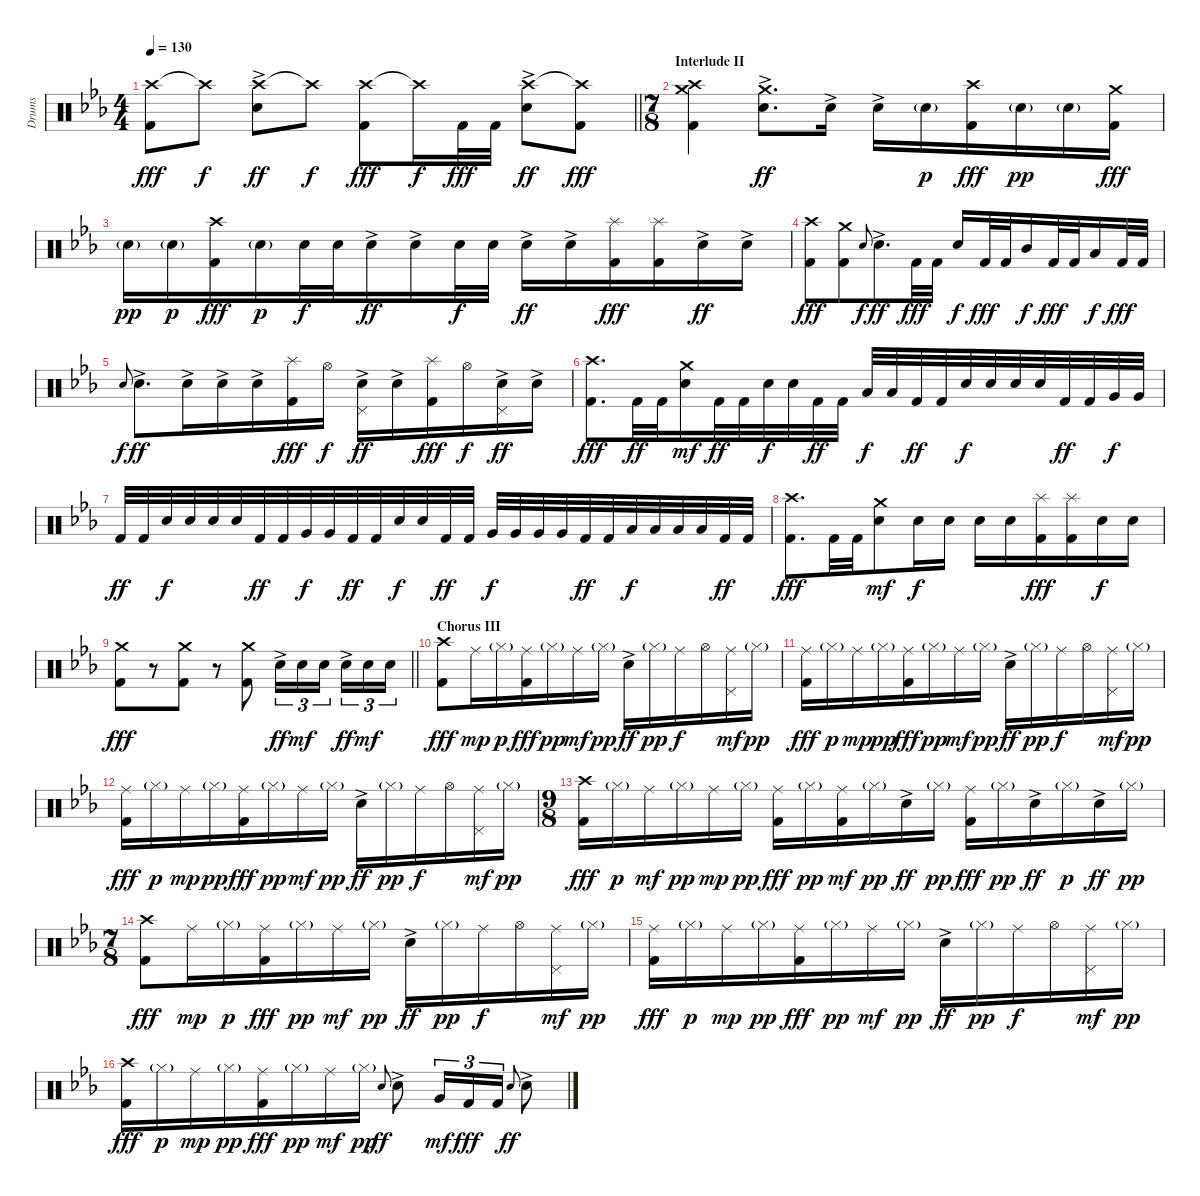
\track ("Drums" "Drums") {instrument percussion}
\staff {score}
\articulation defaults
\ts (4 4)
\tempo 130
\clef neutral
\barLineRight lightlight
\ks cminor
("Crash high (hit)" "Kick (hit) 2").8{dy fff} "Crash high (hit)"{t}.8{dy f} ("Crash high (hit)" "Electric Snare (hit)"{ac}).8{dy ff} "Crash high (hit)"{t}.8{dy f} ("Crash high (hit)" "Kick (hit) 2").8{dy fff} "Crash high (hit)"{t}.16{dy f} "Kick (hit) 2".32{dy fff} "Kick (hit) 2".32 ("Crash high (hit)" "Electric Snare (hit)"{ac}).8{dy ff} ("Crash high (hit)"{t} "Kick (hit) 2").8{dy fff} |
\ts (7 8)
\section ("" "Interlude II")
("Crash high (hit)" "Crash medium (hit)" "Kick (hit) 2").4 ("Crash medium (hit)" "Electric Snare (hit)"{ac}).8{d dy ff} "Electric Snare (hit)"{ac}.16 "Electric Snare (hit)"{ac}.16 "Electric Snare (hit)"{g}.16{dy p} ("Crash high (hit)" "Kick (hit) 2").16{dy fff} "Electric Snare (hit)"{g}.16{dy pp} "Electric Snare (hit)"{g}.16 ("Crash medium (hit)" "Kick (hit) 2").16{dy fff} |
"Electric Snare (hit)"{g}.16{dy pp} "Electric Snare (hit)"{g}.16{dy p} ("Crash high (hit)" "Kick (hit) 2").16{dy fff} "Electric Snare (hit)"{g}.16{dy p} "Electric Snare (hit)".32{dy f} "Electric Snare (hit)".32 "Electric Snare (hit)"{ac}.16{dy ff} "Electric Snare (hit)"{ac}.16 "Electric Snare (hit)".32{dy f} "Electric Snare (hit)".32 "Electric Snare (hit)"{ac}.16{dy ff} "Electric Snare (hit)"{ac}.16 ("Splash (hit)" "Kick (hit) 2").16{dy fff} ("Splash (hit)" "Kick (hit) 2").16 "Electric Snare (hit)"{ac}.16{dy ff} "Electric Snare (hit)"{ac}.16 |
("Crash high (hit)" "Kick (hit) 2").8{dy fff} ("Crash medium (hit)" "Kick (hit) 2").8 "Electric Snare (hit)".8{gr onbeat dy f} "Electric Snare (hit)"{ac}.8{d dy ff} "Kick (hit) 2".32{dy fff} "Kick (hit) 2".32 "Electric Snare (hit)".16{dy f} "Kick (hit) 2".32{dy fff} "Kick (hit) 2".32 "Mid Tom (hit)".16{dy f} "Kick (hit) 2".32{dy fff} "Kick (hit) 2".32 "Low Tom (hit)".16{dy f} "Kick (hit) 2".32{dy fff} "Kick (hit) 2".32 |
"Electric Snare (hit)".8{gr onbeat dy f} "Electric Snare (hit)"{ac}.8{d dy ff} "Electric Snare (hit)"{ac}.16 "Electric Snare (hit)"{ac}.16 "Electric Snare (hit)"{ac}.16 ("Splash (hit)" "Kick (hit) 2").16{dy fff} "Hi-Hat (open)".16{dy f} ("Pedal Hi-Hat (hit)" "Electric Snare (hit)"{ac}).16{dy ff} "Electric Snare (hit)"{ac}.16 ("Splash (hit)" "Kick (hit) 2").16{dy fff} "Hi-Hat (open)".16{dy f} ("Pedal Hi-Hat (hit)" "Electric Snare (hit)"{ac}).16{dy ff} "Electric Snare (hit)"{ac}.16 |
("Crash high (hit)" "Kick (hit) 2").8{d dy fff} "Kick (hit) 2".32{dy ff} "Kick (hit) 2".32 ("Crash medium (hit)" "Electric Snare (hit)").16{dy mf} "Kick (hit) 2".32{dy ff} "Kick (hit) 2".32 "Electric Snare (hit)".32{dy f} "Electric Snare (hit)".32 "Kick (hit) 2".32{dy ff} "Kick (hit) 2".32 "Low Tom (hit)".32{dy f} "Low Tom (hit)".32 "Kick (hit) 2".32{dy ff} "Kick (hit) 2".32 "Electric Snare (hit)".32{dy f} "Electric Snare (hit)".32 "Electric Snare (hit)".32 "Electric Snare (hit)".32 "Kick (hit) 2".32{dy ff} "Kick (hit) 2".32 "Very Low Tom (hit)".32{dy f} "Very Low Tom (hit)".32 |
"Kick (hit) 2".32{dy ff} "Kick (hit) 2".32 "Electric Snare (hit)".32{dy f} "Electric Snare (hit)".32 "Electric Snare (hit)".32 "Electric Snare (hit)".32 "Kick (hit) 2".32{dy ff} "Kick (hit) 2".32 "Very Low Tom (hit)".32{dy f} "Very Low Tom (hit)".32 "Kick (hit) 2".32{dy ff} "Kick (hit) 2".32 "Electric Snare (hit)".32{dy f} "Electric Snare (hit)".32 "Kick (hit) 2".32{dy ff} "Kick (hit) 2".32 "Very Low Tom (hit)".32{dy f} "Very Low Tom (hit)".32 "Very Low Tom (hit)".32 "Very Low Tom (hit)".32 "Kick (hit) 2".32{dy ff} "Kick (hit) 2".32 "Low Tom (hit)".32{dy f} "Low Tom (hit)".32 "Low Tom (hit)".32 "Low Tom (hit)".32 "Kick (hit) 2".32{dy ff} "Kick (hit) 2".32 |
("Crash high (hit)" "Kick (hit) 2").8{d dy fff} "Kick (hit) 2".32 "Kick (hit) 2".32 ("Crash medium (hit)" "Electric Snare (hit)").8{dy mf} "Electric Snare (hit)".16{dy f} "Electric Snare (hit)".16 "Electric Snare (hit)".16 "Electric Snare (hit)".16 ("Splash (hit)" "Kick (hit) 2").16{dy fff} ("Splash (hit)" "Kick (hit) 2").16 "Electric Snare (hit)".16{dy f} "Electric Snare (hit)".16 |
\barLineRight lightlight
("Crash medium (hit)" "Kick (hit) 2").8{dy fff} r.8{volume 2} ("Crash medium (hit)" "Kick (hit) 2").8{volume 16} r.8{volume 2} ("Crash medium (hit)" "Kick (hit) 2").8{volume 16} "Electric Snare (hit)"{ac}.16{tu (3 2) dy ff} "Electric Snare (hit)".16{tu (3 2) dy mf} "Electric Snare (hit)".16{tu (3 2)} "Electric Snare (hit)"{ac}.16{tu (3 2) dy ff} "Electric Snare (hit)".16{tu (3 2) dy mf} "Electric Snare (hit)".16{tu (3 2)} |
\section ("" "Chorus III")
("Crash high (hit)" "Kick (hit) 2").8{dy fff} "Ride (middle)".16{dy mp} "Hi-Hat (closed)"{g}.16{dy p} ("Ride (middle)" "Kick (hit) 2").16{dy fff} "Hi-Hat (closed)"{g}.16{dy pp} "Ride (middle)".16{dy mf} "Hi-Hat (closed)"{g}.16{dy pp} "Electric Snare (hit)"{ac}.16{dy ff} "Hi-Hat (closed)"{g}.16{dy pp} "Ride (middle)".16{dy f} "Hi-Hat (open)".16 ("Ride (middle)" "Pedal Hi-Hat (hit)").16{dy mf} "Hi-Hat (closed)"{g}.16{dy pp} |
("Ride (middle)" "Kick (hit) 2").16{dy fff} "Hi-Hat (closed)"{g}.16{dy p} "Ride (middle)".16{dy mp} "Hi-Hat (closed)"{g}.16{dy pp} ("Ride (middle)" "Kick (hit) 2").16{dy fff} "Hi-Hat (closed)"{g}.16{dy pp} "Ride (middle)".16{dy mf} "Hi-Hat (closed)"{g}.16{dy pp} "Electric Snare (hit)"{ac}.16{dy ff} "Hi-Hat (closed)"{g}.16{dy pp} "Ride (middle)".16{dy f} "Hi-Hat (open)".16 ("Ride (middle)" "Pedal Hi-Hat (hit)").16{dy mf} "Hi-Hat (closed)"{g}.16{dy pp} |
("Ride (middle)" "Kick (hit) 2").16{dy fff} "Hi-Hat (closed)"{g}.16{dy p} "Ride (middle)".16{dy mp} "Hi-Hat (closed)"{g}.16{dy pp} ("Ride (middle)" "Kick (hit) 2").16{dy fff} "Hi-Hat (closed)"{g}.16{dy pp} "Ride (middle)".16{dy mf} "Hi-Hat (closed)"{g}.16{dy pp} "Electric Snare (hit)"{ac}.16{dy ff} "Hi-Hat (closed)"{g}.16{dy pp} "Ride (middle)".16{dy f} "Hi-Hat (open)".16 ("Ride (middle)" "Pedal Hi-Hat (hit)").16{dy mf} "Hi-Hat (closed)"{g}.16{dy pp} |
\ts (9 8)
("Crash high (hit)" "Kick (hit) 2").16{dy fff} "Hi-Hat (closed)"{g}.16{dy p} "Ride (middle)".16{dy mf} "Hi-Hat (closed)"{g}.16{dy pp} "Ride (middle)".16{dy mp} "Hi-Hat (closed)"{g}.16{dy pp} ("Ride (middle)" "Kick (hit) 2").16{dy fff} "Hi-Hat (closed)"{g}.16{dy pp} ("Ride (middle)" "Kick (hit) 2").16{dy mf} "Hi-Hat (closed)"{g}.16{dy pp} "Electric Snare (hit)"{ac}.16{dy ff} "Hi-Hat (closed)"{g}.16{dy pp} ("Ride (middle)" "Kick (hit) 2").16{dy fff} "Hi-Hat (closed)"{g}.16{dy pp} "Electric Snare (hit)"{ac}.16{dy ff} "Hi-Hat (closed)"{g}.16{dy p} "Electric Snare (hit)"{ac}.16{dy ff} "Hi-Hat (closed)"{g}.16{dy pp} |
\ts (7 8)
("Crash high (hit)" "Kick (hit) 2").8{dy fff} "Ride (middle)".16{dy mp} "Hi-Hat (closed)"{g}.16{dy p} ("Ride (middle)" "Kick (hit) 2").16{dy fff} "Hi-Hat (closed)"{g}.16{dy pp} "Ride (middle)".16{dy mf} "Hi-Hat (closed)"{g}.16{dy pp} "Electric Snare (hit)"{ac}.16{dy ff} "Hi-Hat (closed)"{g}.16{dy pp} "Ride (middle)".16{dy f} "Hi-Hat (open)".16 ("Ride (middle)" "Pedal Hi-Hat (hit)").16{dy mf} "Hi-Hat (closed)"{g}.16{dy pp} |
("Ride (middle)" "Kick (hit) 2").16{dy fff} "Hi-Hat (closed)"{g}.16{dy p} "Ride (middle)".16{dy mp} "Hi-Hat (closed)"{g}.16{dy pp} ("Ride (middle)" "Kick (hit) 2").16{dy fff} "Hi-Hat (closed)"{g}.16{dy pp} "Ride (middle)".16{dy mf} "Hi-Hat (closed)"{g}.16{dy pp} "Electric Snare (hit)"{ac}.16{dy ff} "Hi-Hat (closed)"{g}.16{dy pp} "Ride (middle)".16{dy f} "Hi-Hat (open)".16 ("Ride (middle)" "Pedal Hi-Hat (hit)").16{dy mf} "Hi-Hat (closed)"{g}.16{dy pp} |
("Crash high (hit)" "Kick (hit) 2").16{dy fff} "Hi-Hat (closed)"{g}.16{dy p} "Ride (middle)".16{dy mp} "Hi-Hat (closed)"{g}.16{dy pp} ("Ride (middle)" "Kick (hit) 2").16{dy fff} "Hi-Hat (closed)"{g}.16{dy pp} "Ride (middle)".16{dy mf} "Hi-Hat (closed)"{g}.16{dy pp} "Electric Snare (hit)".8{gr onbeat dy ff} "Electric Snare (hit)"{ac}.8 "Very Low Tom (hit)".16{tu (3 2) dy mf} "Kick (hit) 2".16{tu (3 2) dy fff} "Kick (hit) 2".16{tu (3 2)} "Electric Snare (hit)".8{gr onbeat dy ff} "Electric Snare (hit)"{ac}.8
